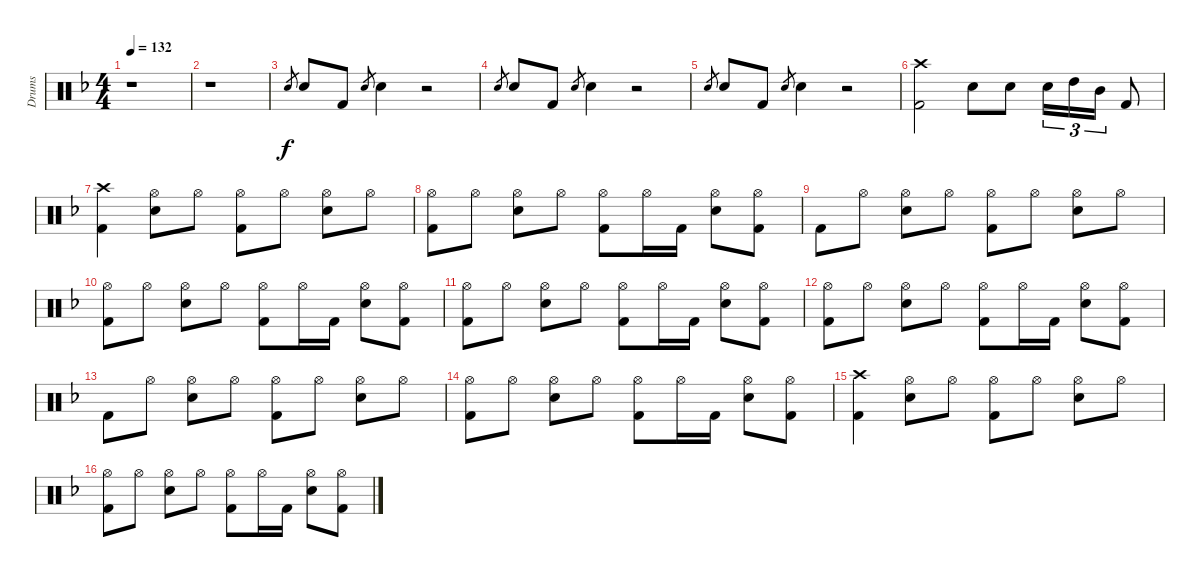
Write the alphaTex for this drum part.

\track ("Drums " "Drums ") {instrument percussion}
\staff {score}
\articulation defaults
\ts (4 4)
\tempo 132
\clef neutral
\ks dminor
r.1{dy f} |
r.1 |
"Snare (hit) 2".8{gr} "Snare (hit) 2".8 "Kick (hit) 2".8 "Snare (hit) 2".8{gr} "Snare (hit) 2".4 r.2 |
"Snare (hit) 2".8{gr} "Snare (hit) 2".8 "Kick (hit) 2".8 "Snare (hit) 2".8{gr} "Snare (hit) 2".4 r.2 |
"Snare (hit) 2".8{gr} "Snare (hit) 2".8 "Kick (hit) 2".8 "Snare (hit) 2".8{gr} "Snare (hit) 2".4 r.2 |
("Kick (hit) 2" "Crash high (hit)").2 "Snare (hit) 2".8 "Snare (hit) 2".8 "Snare (hit) 2".16{tu (3 2)} "High Tom (hit)".16{tu (3 2)} "Mid Tom (hit)".16{tu (3 2)} "Kick (hit) 2".8 |
("Kick (hit) 2" "Crash high (hit)").4 ("Snare (hit) 2" "Hi-Hat (open)").8 "Hi-Hat (open)".8 ("Kick (hit) 2" "Hi-Hat (open)").8 "Hi-Hat (open)".8 ("Snare (hit) 2" "Hi-Hat (open)").8 "Hi-Hat (open)".8 |
("Kick (hit) 2" "Hi-Hat (open)").8 "Hi-Hat (open)".8 ("Snare (hit) 2" "Hi-Hat (open)").8 "Hi-Hat (open)".8 ("Kick (hit) 2" "Hi-Hat (open)").8 "Hi-Hat (open)".16 "Kick (hit) 2".16 ("Snare (hit) 2" "Hi-Hat (open)").8 ("Kick (hit) 2" "Hi-Hat (open)").8 |
"Kick (hit) 2".8 "Hi-Hat (open)".8 ("Snare (hit) 2" "Hi-Hat (open)").8 "Hi-Hat (open)".8 ("Kick (hit) 2" "Hi-Hat (open)").8 "Hi-Hat (open)".8 ("Snare (hit) 2" "Hi-Hat (open)").8 "Hi-Hat (open)".8 |
("Kick (hit) 2" "Hi-Hat (open)").8 "Hi-Hat (open)".8 ("Snare (hit) 2" "Hi-Hat (open)").8 "Hi-Hat (open)".8 ("Kick (hit) 2" "Hi-Hat (open)").8 "Hi-Hat (open)".16 "Kick (hit) 2".16 ("Snare (hit) 2" "Hi-Hat (open)").8 ("Kick (hit) 2" "Hi-Hat (open)").8 |
("Kick (hit) 2" "Hi-Hat (open)").8 "Hi-Hat (open)".8 ("Snare (hit) 2" "Hi-Hat (open)").8 "Hi-Hat (open)".8 ("Kick (hit) 2" "Hi-Hat (open)").8 "Hi-Hat (open)".16 "Kick (hit) 2".16 ("Snare (hit) 2" "Hi-Hat (open)").8 ("Kick (hit) 2" "Hi-Hat (open)").8 |
("Kick (hit) 2" "Hi-Hat (open)").8 "Hi-Hat (open)".8 ("Snare (hit) 2" "Hi-Hat (open)").8 "Hi-Hat (open)".8 ("Kick (hit) 2" "Hi-Hat (open)").8 "Hi-Hat (open)".16 "Kick (hit) 2".16 ("Snare (hit) 2" "Hi-Hat (open)").8 ("Kick (hit) 2" "Hi-Hat (open)").8 |
"Kick (hit) 2".8 "Hi-Hat (open)".8 ("Snare (hit) 2" "Hi-Hat (open)").8 "Hi-Hat (open)".8 ("Kick (hit) 2" "Hi-Hat (open)").8 "Hi-Hat (open)".8 ("Snare (hit) 2" "Hi-Hat (open)").8 "Hi-Hat (open)".8 |
("Kick (hit) 2" "Hi-Hat (open)").8 "Hi-Hat (open)".8 ("Snare (hit) 2" "Hi-Hat (open)").8 "Hi-Hat (open)".8 ("Kick (hit) 2" "Hi-Hat (open)").8 "Hi-Hat (open)".16 "Kick (hit) 2".16 ("Snare (hit) 2" "Hi-Hat (open)").8 ("Kick (hit) 2" "Hi-Hat (open)").8 |
("Kick (hit) 2" "Crash high (hit)").4 ("Snare (hit) 2" "Hi-Hat (open)").8 "Hi-Hat (open)".8 ("Kick (hit) 2" "Hi-Hat (open)").8 "Hi-Hat (open)".8 ("Snare (hit) 2" "Hi-Hat (open)").8 "Hi-Hat (open)".8 |
("Kick (hit) 2" "Hi-Hat (open)").8 "Hi-Hat (open)".8 ("Snare (hit) 2" "Hi-Hat (open)").8 "Hi-Hat (open)".8 ("Kick (hit) 2" "Hi-Hat (open)").8 "Hi-Hat (open)".16 "Kick (hit) 2".16 ("Snare (hit) 2" "Hi-Hat (open)").8 ("Kick (hit) 2" "Hi-Hat (open)").8
